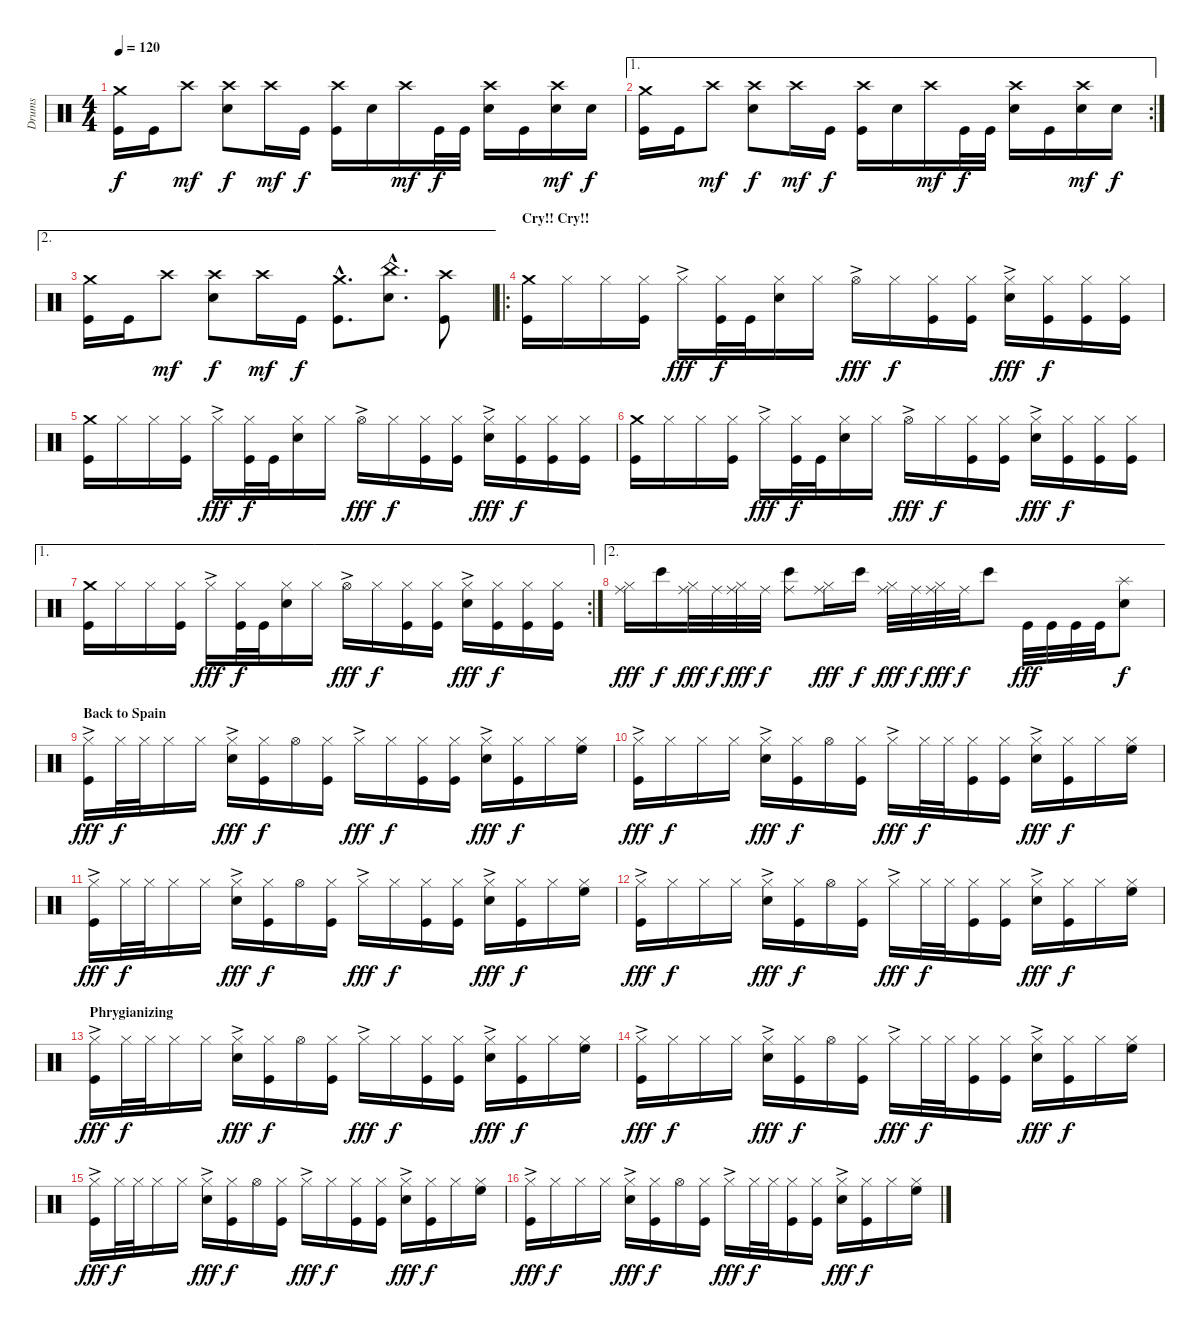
\track ("Drums" "Drums") {instrument percussion}
\staff {score}
\articulation defaults
\ts (4 4)
\tempo 120
\clef neutral
\ks c
("Crash medium (hit)" "Kick (hit)").16{dy f} "Kick (hit)".16 "Crash high (hit)".8{dy mf} ("Crash high (hit)" "Electric Snare (hit)").8{dy f} "Crash high (hit)".16{dy mf} "Kick (hit)".16{dy f} ("Crash high (hit)" "Kick (hit)").16 "Electric Snare (hit)".16 "Crash high (hit)".16{dy mf} "Kick (hit)".32{dy f} "Kick (hit)".32 ("Crash high (hit)" "Electric Snare (hit)").16 "Kick (hit)".16 ("Crash high (hit)" "Electric Snare (hit)").16{dy mf} "Electric Snare (hit)".16{dy f} |
\ae 1
\rc 2
("Crash medium (hit)" "Kick (hit)").16 "Kick (hit)".16 "Crash high (hit)".8{dy mf} ("Crash high (hit)" "Electric Snare (hit)").8{dy f} "Crash high (hit)".16{dy mf} "Kick (hit)".16{dy f} ("Crash high (hit)" "Kick (hit)").16 "Electric Snare (hit)".16 "Crash high (hit)".16{dy mf} "Kick (hit)".32{dy f} "Kick (hit)".32 ("Crash high (hit)" "Electric Snare (hit)").16 "Kick (hit)".16 ("Crash high (hit)" "Electric Snare (hit)").16{dy mf} "Electric Snare (hit)".16{dy f} |
\ae 2
("Crash medium (hit)" "Kick (hit)").16 "Kick (hit)".16 "Crash high (hit)".8{dy mf} ("Crash high (hit)" "Electric Snare (hit)").8{dy f} "Crash high (hit)".16{dy mf} "Kick (hit)".16{dy f} ("Crash medium (hit)"{hac} "Kick (hit)"{hac}).8{d} ("China (hit)"{hac} "Electric Snare (hit)"{hac}).8{d} ("Crash high (hit)" "Kick (hit)").8 |
\ro
\section ("" "Cry!! Cry!!")
("Crash medium (hit)" "Kick (hit)").16 "Hi-Hat (closed)".16 "Hi-Hat (closed)".16 ("Hi-Hat (closed)" "Kick (hit)").16 "Hi-Hat (closed)"{ac}.16{dy fff} ("Hi-Hat (closed)" "Kick (hit)").32{dy f} "Kick (hit)".32 ("Hi-Hat (closed)" "Electric Snare (hit)").16 "Hi-Hat (closed)".16 "Hi-Hat (open)"{ac}.16{dy fff} "Hi-Hat (closed)".16{dy f} ("Hi-Hat (closed)" "Kick (hit)").16 ("Hi-Hat (closed)" "Kick (hit)").16 ("Hi-Hat (closed)"{ac} "Electric Snare (hit)").16{dy fff} ("Hi-Hat (closed)" "Kick (hit)").16{dy f} ("Hi-Hat (closed)" "Kick (hit)").16 ("Hi-Hat (closed)" "Kick (hit)").16 |
("Crash medium (hit)" "Kick (hit)").16 "Hi-Hat (closed)".16 "Hi-Hat (closed)".16 ("Hi-Hat (closed)" "Kick (hit)").16 "Hi-Hat (closed)"{ac}.16{dy fff} ("Hi-Hat (closed)" "Kick (hit)").32{dy f} "Kick (hit)".32 ("Hi-Hat (closed)" "Electric Snare (hit)").16 "Hi-Hat (closed)".16 "Hi-Hat (open)"{ac}.16{dy fff} "Hi-Hat (closed)".16{dy f} ("Hi-Hat (closed)" "Kick (hit)").16 ("Hi-Hat (closed)" "Kick (hit)").16 ("Hi-Hat (closed)"{ac} "Electric Snare (hit)").16{dy fff} ("Hi-Hat (closed)" "Kick (hit)").16{dy f} ("Hi-Hat (closed)" "Kick (hit)").16 ("Hi-Hat (closed)" "Kick (hit)").16 |
("Crash medium (hit)" "Kick (hit)").16 "Hi-Hat (closed)".16 "Hi-Hat (closed)".16 ("Hi-Hat (closed)" "Kick (hit)").16 "Hi-Hat (closed)"{ac}.16{dy fff} ("Hi-Hat (closed)" "Kick (hit)").32{dy f} "Kick (hit)".32 ("Hi-Hat (closed)" "Electric Snare (hit)").16 "Hi-Hat (closed)".16 "Hi-Hat (open)"{ac}.16{dy fff} "Hi-Hat (closed)".16{dy f} ("Hi-Hat (closed)" "Kick (hit)").16 ("Hi-Hat (closed)" "Kick (hit)").16 ("Hi-Hat (closed)"{ac} "Electric Snare (hit)").16{dy fff} ("Hi-Hat (closed)" "Kick (hit)").16{dy f} ("Hi-Hat (closed)" "Kick (hit)").16 ("Hi-Hat (closed)" "Kick (hit)").16 |
\ae 1
\rc 2
("Crash medium (hit)" "Kick (hit)").16 "Hi-Hat (closed)".16 "Hi-Hat (closed)".16 ("Hi-Hat (closed)" "Kick (hit)").16 "Hi-Hat (closed)"{ac}.16{dy fff} ("Hi-Hat (closed)" "Kick (hit)").32{dy f} "Kick (hit)".32 ("Hi-Hat (closed)" "Electric Snare (hit)").16 "Hi-Hat (closed)".16 "Hi-Hat (open)"{ac}.16{dy fff} "Hi-Hat (closed)".16{dy f} ("Hi-Hat (closed)" "Kick (hit)").16 ("Hi-Hat (closed)" "Kick (hit)").16 ("Hi-Hat (closed)"{ac} "Electric Snare (hit)").16{dy fff} ("Hi-Hat (closed)" "Kick (hit)").16{dy f} ("Hi-Hat (closed)" "Kick (hit)").16 ("Hi-Hat (closed)" "Kick (hit)").16 |
\ae 2
("Ride (middle)" "Hi-Hat (closed)").16{dy fff} "Bongo High (hit)".16{dy f} ("Ride (middle)" "Hi-Hat (closed)").32{dy fff} "Ride (middle)".32{dy f} ("Ride (middle)" "Hi-Hat (closed)").32{dy fff} "Ride (middle)".32{dy f} ("Ride (middle)" "Bongo High (hit)").8 ("Ride (middle)" "Hi-Hat (closed)").16{dy fff} "Bongo High (hit)".16{dy f} ("Ride (middle)" "Hi-Hat (closed)").32{dy fff} "Ride (middle)".32{dy f} ("Ride (middle)" "Hi-Hat (closed)").32{dy fff} "Ride (middle)".32{dy f} "Bongo High (hit)".8 "Kick (hit)".32{dy fff} "Kick (hit)".32 "Kick (hit)".32 "Kick (hit)".32 ("Splash (hit)" "Electric Snare (hit)").8{dy f} |
\section ("" "Back to Spain")
("Hi-Hat (closed)"{ac} "Kick (hit)").16{dy fff} "Hi-Hat (closed)".32{dy f} "Hi-Hat (closed)".32 "Hi-Hat (closed)".16 "Hi-Hat (closed)".16 ("Hi-Hat (closed)"{ac} "Electric Snare (hit)").16{dy fff} ("Hi-Hat (closed)" "Kick (hit)").16{dy f} "Hi-Hat (open)".16 ("Hi-Hat (closed)" "Kick (hit)").16 "Hi-Hat (closed)"{ac}.16{dy fff} "Hi-Hat (closed)".16{dy f} ("Hi-Hat (closed)" "Kick (hit)").16 ("Hi-Hat (closed)" "Kick (hit)").16 ("Hi-Hat (closed)"{ac} "Electric Snare (hit)").16{dy fff} ("Hi-Hat (closed)" "Kick (hit)").16{dy f} "Hi-Hat (closed)".16 ("Hi-Hat (closed)" "High Floor Tom (hit)").16 |
("Hi-Hat (closed)"{ac} "Kick (hit)").16{dy fff} "Hi-Hat (closed)".16{dy f} "Hi-Hat (closed)".16 "Hi-Hat (closed)".16 ("Hi-Hat (closed)"{ac} "Electric Snare (hit)").16{dy fff} ("Hi-Hat (closed)" "Kick (hit)").16{dy f} "Hi-Hat (open)".16 ("Hi-Hat (closed)" "Kick (hit)").16 "Hi-Hat (closed)"{ac}.16{dy fff} "Hi-Hat (closed)".32{dy f} "Hi-Hat (closed)".32 ("Hi-Hat (closed)" "Kick (hit)").16 ("Hi-Hat (closed)" "Kick (hit)").16 ("Hi-Hat (closed)"{ac} "Electric Snare (hit)").16{dy fff} ("Hi-Hat (closed)" "Kick (hit)").16{dy f} "Hi-Hat (closed)".16 ("Hi-Hat (closed)" "High Floor Tom (hit)").16 |
("Hi-Hat (closed)"{ac} "Kick (hit)").16{dy fff} "Hi-Hat (closed)".32{dy f} "Hi-Hat (closed)".32 "Hi-Hat (closed)".16 "Hi-Hat (closed)".16 ("Hi-Hat (closed)"{ac} "Electric Snare (hit)").16{dy fff} ("Hi-Hat (closed)" "Kick (hit)").16{dy f} "Hi-Hat (open)".16 ("Hi-Hat (closed)" "Kick (hit)").16 "Hi-Hat (closed)"{ac}.16{dy fff} "Hi-Hat (closed)".16{dy f} ("Hi-Hat (closed)" "Kick (hit)").16 ("Hi-Hat (closed)" "Kick (hit)").16 ("Hi-Hat (closed)"{ac} "Electric Snare (hit)").16{dy fff} ("Hi-Hat (closed)" "Kick (hit)").16{dy f} "Hi-Hat (closed)".16 ("Hi-Hat (closed)" "High Floor Tom (hit)").16 |
("Hi-Hat (closed)"{ac} "Kick (hit)").16{dy fff} "Hi-Hat (closed)".16{dy f} "Hi-Hat (closed)".16 "Hi-Hat (closed)".16 ("Hi-Hat (closed)"{ac} "Electric Snare (hit)").16{dy fff} ("Hi-Hat (closed)" "Kick (hit)").16{dy f} "Hi-Hat (open)".16 ("Hi-Hat (closed)" "Kick (hit)").16 "Hi-Hat (closed)"{ac}.16{dy fff} "Hi-Hat (closed)".32{dy f} "Hi-Hat (closed)".32 ("Hi-Hat (closed)" "Kick (hit)").16 ("Hi-Hat (closed)" "Kick (hit)").16 ("Hi-Hat (closed)"{ac} "Electric Snare (hit)").16{dy fff} ("Hi-Hat (closed)" "Kick (hit)").16{dy f} "Hi-Hat (closed)".16 ("Hi-Hat (closed)" "High Floor Tom (hit)").16 |
\section ("" "Phrygianizing")
("Hi-Hat (closed)"{ac} "Kick (hit)").16{dy fff} "Hi-Hat (closed)".32{dy f} "Hi-Hat (closed)".32 "Hi-Hat (closed)".16 "Hi-Hat (closed)".16 ("Hi-Hat (closed)"{ac} "Electric Snare (hit)").16{dy fff} ("Hi-Hat (closed)" "Kick (hit)").16{dy f} "Hi-Hat (open)".16 ("Hi-Hat (closed)" "Kick (hit)").16 "Hi-Hat (closed)"{ac}.16{dy fff} "Hi-Hat (closed)".16{dy f} ("Hi-Hat (closed)" "Kick (hit)").16 ("Hi-Hat (closed)" "Kick (hit)").16 ("Hi-Hat (closed)"{ac} "Electric Snare (hit)").16{dy fff} ("Hi-Hat (closed)" "Kick (hit)").16{dy f} "Hi-Hat (closed)".16 ("Hi-Hat (closed)" "High Floor Tom (hit)").16 |
("Hi-Hat (closed)"{ac} "Kick (hit)").16{dy fff} "Hi-Hat (closed)".16{dy f} "Hi-Hat (closed)".16 "Hi-Hat (closed)".16 ("Hi-Hat (closed)"{ac} "Electric Snare (hit)").16{dy fff} ("Hi-Hat (closed)" "Kick (hit)").16{dy f} "Hi-Hat (open)".16 ("Hi-Hat (closed)" "Kick (hit)").16 "Hi-Hat (closed)"{ac}.16{dy fff} "Hi-Hat (closed)".32{dy f} "Hi-Hat (closed)".32 ("Hi-Hat (closed)" "Kick (hit)").16 ("Hi-Hat (closed)" "Kick (hit)").16 ("Hi-Hat (closed)"{ac} "Electric Snare (hit)").16{dy fff} ("Hi-Hat (closed)" "Kick (hit)").16{dy f} "Hi-Hat (closed)".16 ("Hi-Hat (closed)" "High Floor Tom (hit)").16 |
("Hi-Hat (closed)"{ac} "Kick (hit)").16{dy fff} "Hi-Hat (closed)".32{dy f} "Hi-Hat (closed)".32 "Hi-Hat (closed)".16 "Hi-Hat (closed)".16 ("Hi-Hat (closed)"{ac} "Electric Snare (hit)").16{dy fff} ("Hi-Hat (closed)" "Kick (hit)").16{dy f} "Hi-Hat (open)".16 ("Hi-Hat (closed)" "Kick (hit)").16 "Hi-Hat (closed)"{ac}.16{dy fff} "Hi-Hat (closed)".16{dy f} ("Hi-Hat (closed)" "Kick (hit)").16 ("Hi-Hat (closed)" "Kick (hit)").16 ("Hi-Hat (closed)"{ac} "Electric Snare (hit)").16{dy fff} ("Hi-Hat (closed)" "Kick (hit)").16{dy f} "Hi-Hat (closed)".16 ("Hi-Hat (closed)" "High Floor Tom (hit)").16 |
("Hi-Hat (closed)"{ac} "Kick (hit)").16{dy fff} "Hi-Hat (closed)".16{dy f} "Hi-Hat (closed)".16 "Hi-Hat (closed)".16 ("Hi-Hat (closed)"{ac} "Electric Snare (hit)").16{dy fff} ("Hi-Hat (closed)" "Kick (hit)").16{dy f} "Hi-Hat (open)".16 ("Hi-Hat (closed)" "Kick (hit)").16 "Hi-Hat (closed)"{ac}.16{dy fff} "Hi-Hat (closed)".32{dy f} "Hi-Hat (closed)".32 ("Hi-Hat (closed)" "Kick (hit)").16 ("Hi-Hat (closed)" "Kick (hit)").16 ("Hi-Hat (closed)"{ac} "Electric Snare (hit)").16{dy fff} ("Hi-Hat (closed)" "Kick (hit)").16{dy f} "Hi-Hat (closed)".16 ("Hi-Hat (closed)" "High Floor Tom (hit)").16
